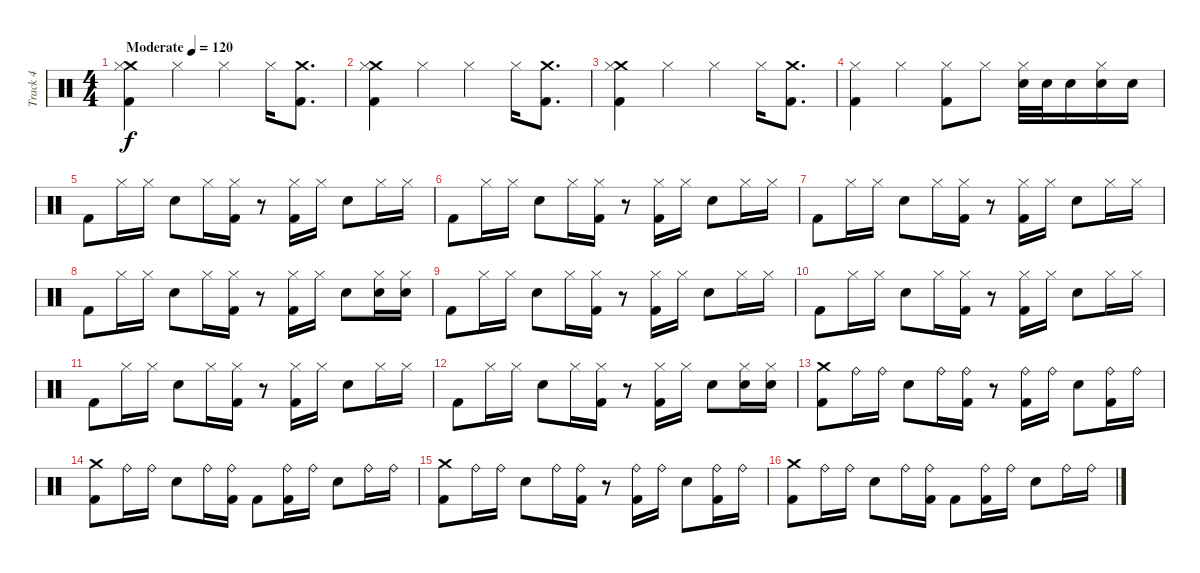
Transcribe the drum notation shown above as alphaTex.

\track ("Track 4" "Track 4") {instrument percussion}
\staff {score}
\articulation defaults
\ts (4 4)
\tempo (120 "Moderate")
\clef neutral
\ks c
("Crash medium (hit)" "Hi-Hat (closed)" "Kick (hit) 2").4{dy f} "Hi-Hat (closed)".4 "Hi-Hat (closed)".4 "Hi-Hat (closed)".16 ("Crash medium (hit)" "Kick (hit) 2").8{d} |
("Crash medium (hit)" "Hi-Hat (closed)" "Kick (hit) 2").4 "Hi-Hat (closed)".4 "Hi-Hat (closed)".4 "Hi-Hat (closed)".16 ("Crash medium (hit)" "Kick (hit) 2").8{d} |
("Crash medium (hit)" "Hi-Hat (closed)" "Kick (hit) 2").4 "Hi-Hat (closed)".4 "Hi-Hat (closed)".4 "Hi-Hat (closed)".16 ("Crash medium (hit)" "Kick (hit) 2").8{d} |
("Hi-Hat (closed)" "Kick (hit) 2").4 "Hi-Hat (closed)".4 ("Hi-Hat (closed)" "Kick (hit) 2").8 "Hi-Hat (closed)".8 ("Hi-Hat (closed)" "Electric Snare (hit)").32 "Electric Snare (hit)".32 "Electric Snare (hit)".16 ("Hi-Hat (closed)" "Electric Snare (hit)").16 "Electric Snare (hit)".16 |
"Kick (hit) 2".8 "Hi-Hat (closed)".16 "Hi-Hat (closed)".16 "Electric Snare (hit)".8 "Hi-Hat (closed)".16 ("Hi-Hat (closed)" "Kick (hit) 2").16 r.8 ("Hi-Hat (closed)" "Kick (hit) 2").16 "Hi-Hat (closed)".16 "Electric Snare (hit)".8 "Hi-Hat (closed)".16 "Hi-Hat (closed)".16 |
"Kick (hit) 2".8 "Hi-Hat (closed)".16 "Hi-Hat (closed)".16 "Electric Snare (hit)".8 "Hi-Hat (closed)".16 ("Hi-Hat (closed)" "Kick (hit) 2").16 r.8 ("Hi-Hat (closed)" "Kick (hit) 2").16 "Hi-Hat (closed)".16 "Electric Snare (hit)".8 "Hi-Hat (closed)".16 "Hi-Hat (closed)".16 |
"Kick (hit) 2".8 "Hi-Hat (closed)".16 "Hi-Hat (closed)".16 "Electric Snare (hit)".8 "Hi-Hat (closed)".16 ("Hi-Hat (closed)" "Kick (hit) 2").16 r.8 ("Hi-Hat (closed)" "Kick (hit) 2").16 "Hi-Hat (closed)".16 "Electric Snare (hit)".8 "Hi-Hat (closed)".16 "Hi-Hat (closed)".16 |
"Kick (hit) 2".8 "Hi-Hat (closed)".16 "Hi-Hat (closed)".16 "Electric Snare (hit)".8 "Hi-Hat (closed)".16 ("Hi-Hat (closed)" "Kick (hit) 2").16 r.8 ("Hi-Hat (closed)" "Kick (hit) 2").16 "Hi-Hat (closed)".16 "Electric Snare (hit)".8 ("Hi-Hat (closed)" "Electric Snare (hit)").16 ("Hi-Hat (closed)" "Electric Snare (hit)").16 |
"Kick (hit) 2".8 "Hi-Hat (closed)".16 "Hi-Hat (closed)".16 "Electric Snare (hit)".8 "Hi-Hat (closed)".16 ("Hi-Hat (closed)" "Kick (hit) 2").16 r.8 ("Hi-Hat (closed)" "Kick (hit) 2").16 "Hi-Hat (closed)".16 "Electric Snare (hit)".8 "Hi-Hat (closed)".16 "Hi-Hat (closed)".16 |
"Kick (hit) 2".8 "Hi-Hat (closed)".16 "Hi-Hat (closed)".16 "Electric Snare (hit)".8 "Hi-Hat (closed)".16 ("Hi-Hat (closed)" "Kick (hit) 2").16 r.8 ("Hi-Hat (closed)" "Kick (hit) 2").16 "Hi-Hat (closed)".16 "Electric Snare (hit)".8 "Hi-Hat (closed)".16 "Hi-Hat (closed)".16 |
"Kick (hit) 2".8 "Hi-Hat (closed)".16 "Hi-Hat (closed)".16 "Electric Snare (hit)".8 "Hi-Hat (closed)".16 ("Hi-Hat (closed)" "Kick (hit) 2").16 r.8 ("Hi-Hat (closed)" "Kick (hit) 2").16 "Hi-Hat (closed)".16 "Electric Snare (hit)".8 "Hi-Hat (closed)".16 "Hi-Hat (closed)".16 |
"Kick (hit) 2".8 "Hi-Hat (closed)".16 "Hi-Hat (closed)".16 "Electric Snare (hit)".8 "Hi-Hat (closed)".16 ("Hi-Hat (closed)" "Kick (hit) 2").16 r.8 ("Hi-Hat (closed)" "Kick (hit) 2").16 "Hi-Hat (closed)".16 "Electric Snare (hit)".8 ("Hi-Hat (closed)" "Electric Snare (hit)").16 ("Hi-Hat (closed)" "Electric Snare (hit)").16 |
("Crash medium (hit)" "Kick (hit) 2").8 "Ride (bell)".16 "Ride (bell)".16 "Electric Snare (hit)".8 "Ride (bell)".16 ("Ride (bell)" "Kick (hit) 2").16 r.8 ("Ride (bell)" "Kick (hit) 2").16 "Ride (bell)".16 "Electric Snare (hit)".8 ("Ride (bell)" "Kick (hit) 2").16 "Ride (bell)".16 |
("Crash medium (hit)" "Kick (hit) 2").8 "Ride (bell)".16 "Ride (bell)".16 "Electric Snare (hit)".8 "Ride (bell)".16 ("Ride (bell)" "Kick (hit) 2").16 "Kick (hit) 2".8 ("Ride (bell)" "Kick (hit) 2").16 "Ride (bell)".16 "Electric Snare (hit)".8 "Ride (bell)".16 "Ride (bell)".16 |
("Crash medium (hit)" "Kick (hit) 2").8 "Ride (bell)".16 "Ride (bell)".16 "Electric Snare (hit)".8 "Ride (bell)".16 ("Ride (bell)" "Kick (hit) 2").16 r.8 ("Ride (bell)" "Kick (hit) 2").16 "Ride (bell)".16 "Electric Snare (hit)".8 ("Ride (bell)" "Kick (hit) 2").16 "Ride (bell)".16 |
("Crash medium (hit)" "Kick (hit) 2").8 "Ride (bell)".16 "Ride (bell)".16 "Electric Snare (hit)".8 "Ride (bell)".16 ("Ride (bell)" "Kick (hit) 2").16 "Kick (hit) 2".8 ("Ride (bell)" "Kick (hit) 2").16 "Ride (bell)".16 "Electric Snare (hit)".8 "Ride (bell)".16 "Ride (bell)".16
